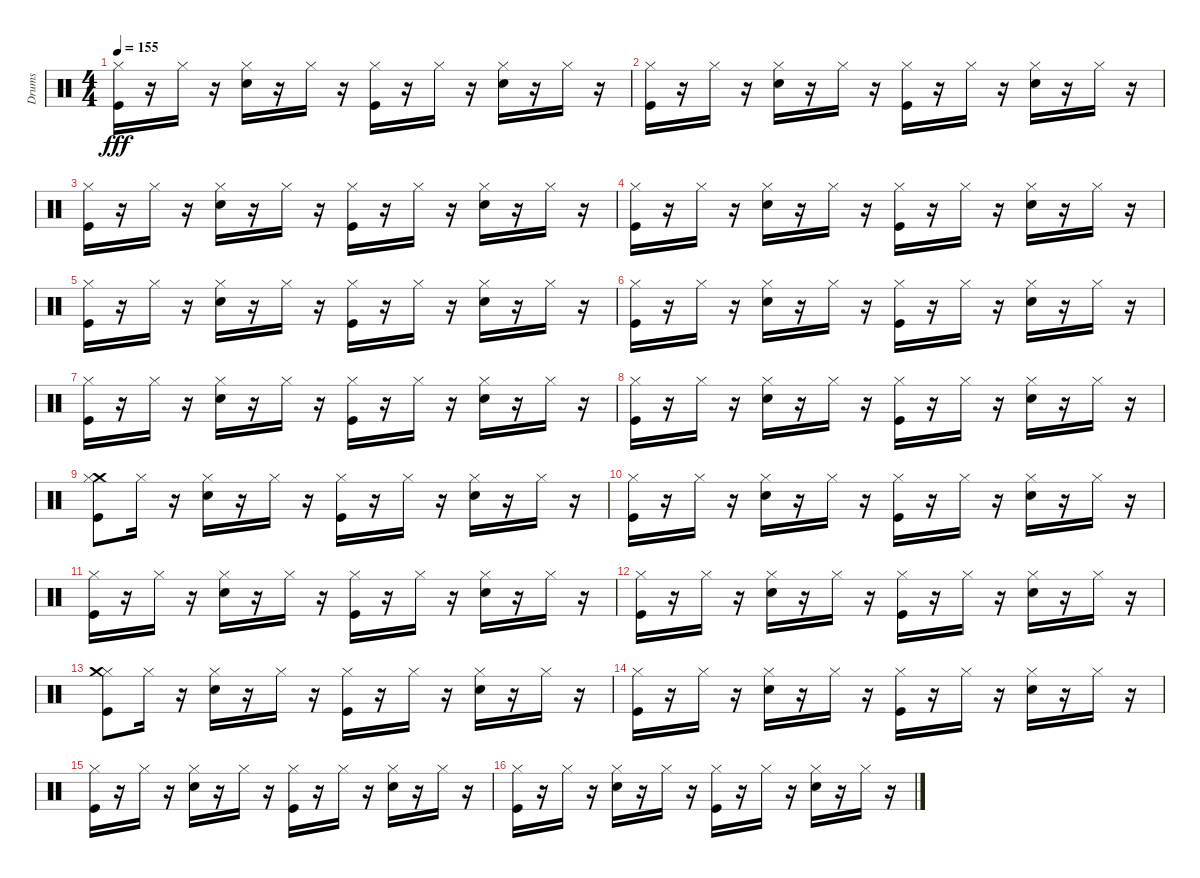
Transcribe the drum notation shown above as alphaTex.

\track ("Drums" "Drums") {instrument percussion}
\staff {score}
\articulation defaults
\ts (4 4)
\tempo 155
\clef neutral
\ks c
("Kick (hit)" "Hi-Hat (closed)").16{dy fff} r.16 "Hi-Hat (closed)".16 r.16 ("Snare (hit) 2" "Hi-Hat (closed)").16 r.16 "Hi-Hat (closed)".16 r.16 ("Kick (hit)" "Hi-Hat (closed)").16 r.16 "Hi-Hat (closed)".16 r.16 ("Snare (hit) 2" "Hi-Hat (closed)").16 r.16 "Hi-Hat (closed)".16 r.16 |
("Hi-Hat (closed)" "Kick (hit)").16 r.16 "Hi-Hat (closed)".16 r.16 ("Hi-Hat (closed)" "Snare (hit) 2").16 r.16 "Hi-Hat (closed)".16 r.16 ("Hi-Hat (closed)" "Kick (hit)").16 r.16 "Hi-Hat (closed)".16 r.16 ("Hi-Hat (closed)" "Snare (hit) 2").16 r.16 "Hi-Hat (closed)".16 r.16 |
("Kick (hit)" "Hi-Hat (closed)").16 r.16 "Hi-Hat (closed)".16 r.16 ("Snare (hit) 2" "Hi-Hat (closed)").16 r.16 "Hi-Hat (closed)".16 r.16 ("Kick (hit)" "Hi-Hat (closed)").16 r.16 "Hi-Hat (closed)".16 r.16 ("Snare (hit) 2" "Hi-Hat (closed)").16 r.16 "Hi-Hat (closed)".16 r.16 |
("Hi-Hat (closed)" "Kick (hit)").16 r.16 "Hi-Hat (closed)".16 r.16 ("Hi-Hat (closed)" "Snare (hit) 2").16 r.16 "Hi-Hat (closed)".16 r.16 ("Hi-Hat (closed)" "Kick (hit)").16 r.16 "Hi-Hat (closed)".16 r.16 ("Hi-Hat (closed)" "Snare (hit) 2").16 r.16 "Hi-Hat (closed)".16 r.16 |
("Kick (hit)" "Hi-Hat (closed)").16 r.16 "Hi-Hat (closed)".16 r.16 ("Snare (hit) 2" "Hi-Hat (closed)").16 r.16 "Hi-Hat (closed)".16 r.16 ("Kick (hit)" "Hi-Hat (closed)").16 r.16 "Hi-Hat (closed)".16 r.16 ("Snare (hit) 2" "Hi-Hat (closed)").16 r.16 "Hi-Hat (closed)".16 r.16 |
("Hi-Hat (closed)" "Kick (hit)").16 r.16 "Hi-Hat (closed)".16 r.16 ("Hi-Hat (closed)" "Snare (hit) 2").16 r.16 "Hi-Hat (closed)".16 r.16 ("Hi-Hat (closed)" "Kick (hit)").16 r.16 "Hi-Hat (closed)".16 r.16 ("Hi-Hat (closed)" "Snare (hit) 2").16 r.16 "Hi-Hat (closed)".16 r.16 |
("Kick (hit)" "Hi-Hat (closed)").16 r.16 "Hi-Hat (closed)".16 r.16 ("Snare (hit) 2" "Hi-Hat (closed)").16 r.16 "Hi-Hat (closed)".16 r.16 ("Kick (hit)" "Hi-Hat (closed)").16 r.16 "Hi-Hat (closed)".16 r.16 ("Snare (hit) 2" "Hi-Hat (closed)").16 r.16 "Hi-Hat (closed)".16 r.16 |
("Hi-Hat (closed)" "Kick (hit)").16 r.16 "Hi-Hat (closed)".16 r.16 ("Hi-Hat (closed)" "Snare (hit) 2").16 r.16 "Hi-Hat (closed)".16 r.16 ("Hi-Hat (closed)" "Kick (hit)").16 r.16 "Hi-Hat (closed)".16 r.16 ("Hi-Hat (closed)" "Snare (hit) 2").16 r.16 "Hi-Hat (closed)".16 r.16 |
("Crash medium (hit)" "Kick (hit)" "Hi-Hat (closed)").8 "Hi-Hat (closed)".16 r.16 ("Snare (hit) 2" "Hi-Hat (closed)").16 r.16 "Hi-Hat (closed)".16 r.16 ("Kick (hit)" "Hi-Hat (closed)").16 r.16 "Hi-Hat (closed)".16 r.16 ("Snare (hit) 2" "Hi-Hat (closed)").16 r.16 "Hi-Hat (closed)".16 r.16 |
("Hi-Hat (closed)" "Kick (hit)").16 r.16 "Hi-Hat (closed)".16 r.16 ("Hi-Hat (closed)" "Snare (hit) 2").16 r.16 "Hi-Hat (closed)".16 r.16 ("Hi-Hat (closed)" "Kick (hit)").16 r.16 "Hi-Hat (closed)".16 r.16 ("Hi-Hat (closed)" "Snare (hit) 2").16 r.16 "Hi-Hat (closed)".16 r.16 |
("Kick (hit)" "Hi-Hat (closed)").16 r.16 "Hi-Hat (closed)".16 r.16 ("Snare (hit) 2" "Hi-Hat (closed)").16 r.16 "Hi-Hat (closed)".16 r.16 ("Kick (hit)" "Hi-Hat (closed)").16 r.16 "Hi-Hat (closed)".16 r.16 ("Snare (hit) 2" "Hi-Hat (closed)").16 r.16 "Hi-Hat (closed)".16 r.16 |
("Hi-Hat (closed)" "Kick (hit)").16 r.16 "Hi-Hat (closed)".16 r.16 ("Hi-Hat (closed)" "Snare (hit) 2").16 r.16 "Hi-Hat (closed)".16 r.16 ("Hi-Hat (closed)" "Kick (hit)").16 r.16 "Hi-Hat (closed)".16 r.16 ("Hi-Hat (closed)" "Snare (hit) 2").16 r.16 "Hi-Hat (closed)".16 r.16 |
("Kick (hit)" "Hi-Hat (closed)" "Crash medium (hit)").8 "Hi-Hat (closed)".16 r.16 ("Snare (hit) 2" "Hi-Hat (closed)").16 r.16 "Hi-Hat (closed)".16 r.16 ("Kick (hit)" "Hi-Hat (closed)").16 r.16 "Hi-Hat (closed)".16 r.16 ("Snare (hit) 2" "Hi-Hat (closed)").16 r.16 "Hi-Hat (closed)".16 r.16 |
("Hi-Hat (closed)" "Kick (hit)").16 r.16 "Hi-Hat (closed)".16 r.16 ("Hi-Hat (closed)" "Snare (hit) 2").16 r.16 "Hi-Hat (closed)".16 r.16 ("Hi-Hat (closed)" "Kick (hit)").16 r.16 "Hi-Hat (closed)".16 r.16 ("Hi-Hat (closed)" "Snare (hit) 2").16 r.16 "Hi-Hat (closed)".16 r.16 |
("Kick (hit)" "Hi-Hat (closed)").16 r.16 "Hi-Hat (closed)".16 r.16 ("Snare (hit) 2" "Hi-Hat (closed)").16 r.16 "Hi-Hat (closed)".16 r.16 ("Kick (hit)" "Hi-Hat (closed)").16 r.16 "Hi-Hat (closed)".16 r.16 ("Snare (hit) 2" "Hi-Hat (closed)").16 r.16 "Hi-Hat (closed)".16 r.16 |
("Hi-Hat (closed)" "Kick (hit)").16 r.16 "Hi-Hat (closed)".16 r.16 ("Hi-Hat (closed)" "Snare (hit) 2").16 r.16 "Hi-Hat (closed)".16 r.16 ("Hi-Hat (closed)" "Kick (hit)").16 r.16 "Hi-Hat (closed)".16 r.16 ("Hi-Hat (closed)" "Snare (hit) 2").16 r.16 "Hi-Hat (closed)".16 r.16
